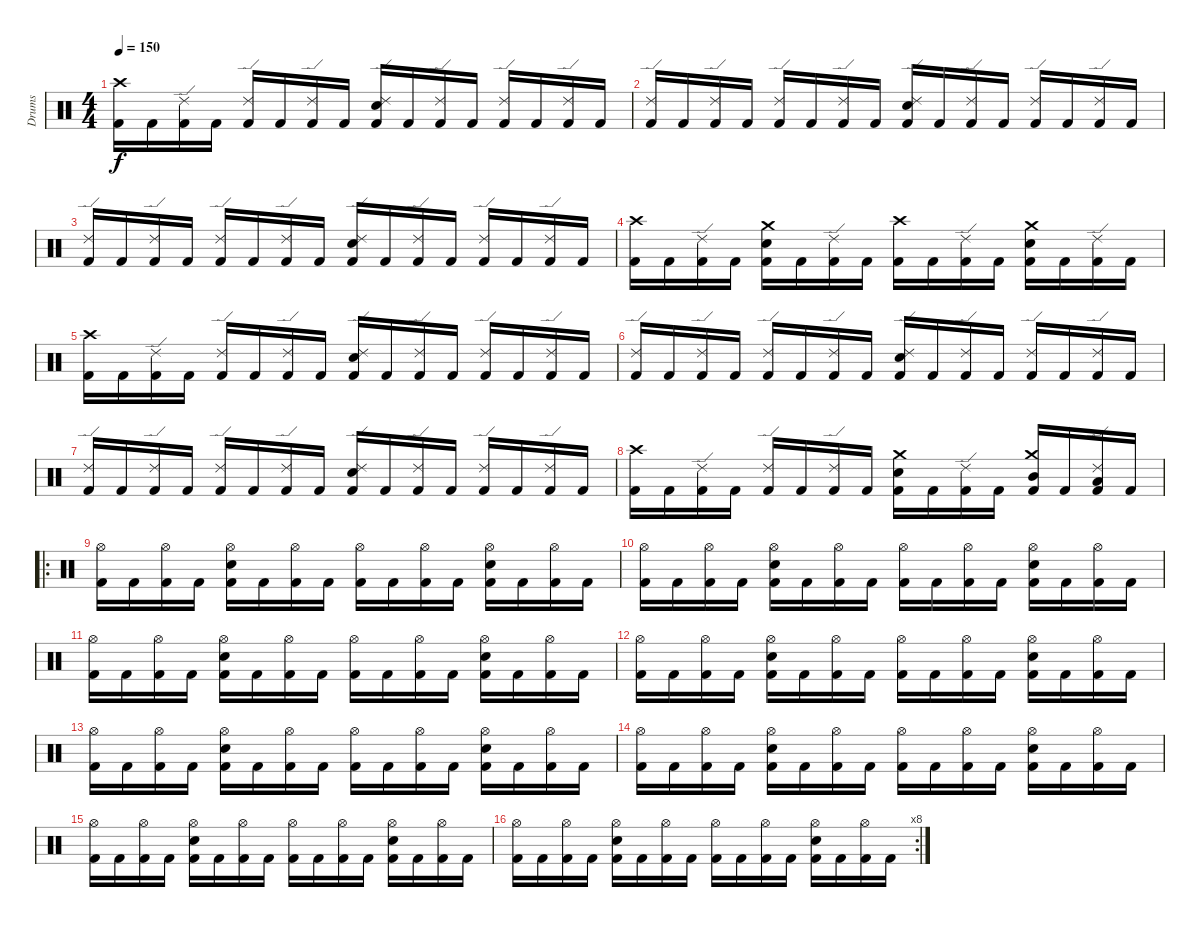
\track ("Drums" "Drums") {instrument percussion}
\staff {score}
\articulation defaults
\ts (4 4)
\tempo 150
\clef neutral
\ks c
("Crash high (hit)" "Kick (hit) 2").16{dy f} "Kick (hit) 2".16 ("Ride (edge) 2" "Kick (hit) 2").16 "Kick (hit) 2".16 ("Ride (edge) 2" "Kick (hit) 2").16 "Kick (hit) 2".16 ("Ride (edge) 2" "Kick (hit) 2").16 "Kick (hit) 2".16 ("Ride (edge) 2" "Electric Snare (hit)" "Kick (hit) 2").16 "Kick (hit) 2".16 ("Ride (edge) 2" "Kick (hit) 2").16 "Kick (hit) 2".16 ("Ride (edge) 2" "Kick (hit) 2").16 "Kick (hit) 2".16 ("Ride (edge) 2" "Kick (hit) 2").16 "Kick (hit) 2".16 |
("Ride (edge) 2" "Kick (hit) 2").16 "Kick (hit) 2".16 ("Ride (edge) 2" "Kick (hit) 2").16 "Kick (hit) 2".16 ("Ride (edge) 2" "Kick (hit) 2").16 "Kick (hit) 2".16 ("Ride (edge) 2" "Kick (hit) 2").16 "Kick (hit) 2".16 ("Ride (edge) 2" "Electric Snare (hit)" "Kick (hit) 2").16 "Kick (hit) 2".16 ("Ride (edge) 2" "Kick (hit) 2").16 "Kick (hit) 2".16 ("Ride (edge) 2" "Kick (hit) 2").16 "Kick (hit) 2".16 ("Ride (edge) 2" "Kick (hit) 2").16 "Kick (hit) 2".16 |
("Ride (edge) 2" "Kick (hit) 2").16 "Kick (hit) 2".16 ("Ride (edge) 2" "Kick (hit) 2").16 "Kick (hit) 2".16 ("Ride (edge) 2" "Kick (hit) 2").16 "Kick (hit) 2".16 ("Ride (edge) 2" "Kick (hit) 2").16 "Kick (hit) 2".16 ("Ride (edge) 2" "Electric Snare (hit)" "Kick (hit) 2").16 "Kick (hit) 2".16 ("Ride (edge) 2" "Kick (hit) 2").16 "Kick (hit) 2".16 ("Ride (edge) 2" "Kick (hit) 2").16 "Kick (hit) 2".16 ("Ride (edge) 2" "Kick (hit) 2").16 "Kick (hit) 2".16 |
("Crash high (hit)" "Kick (hit) 2").16 "Kick (hit) 2".16 ("Ride (edge) 2" "Kick (hit) 2").16 "Kick (hit) 2".16 ("Crash medium (hit)" "Electric Snare (hit)" "Kick (hit) 2").16 "Kick (hit) 2".16 ("Ride (edge) 2" "Kick (hit) 2").16 "Kick (hit) 2".16 ("Crash high (hit)" "Kick (hit) 2").16 "Kick (hit) 2".16 ("Ride (edge) 2" "Kick (hit) 2").16 "Kick (hit) 2".16 ("Crash medium (hit)" "Electric Snare (hit)" "Kick (hit) 2").16 "Kick (hit) 2".16 ("Ride (edge) 2" "Kick (hit) 2").16 "Kick (hit) 2".16 |
("Crash high (hit)" "Kick (hit) 2").16 "Kick (hit) 2".16 ("Ride (edge) 2" "Kick (hit) 2").16 "Kick (hit) 2".16 ("Ride (edge) 2" "Kick (hit) 2").16 "Kick (hit) 2".16 ("Ride (edge) 2" "Kick (hit) 2").16 "Kick (hit) 2".16 ("Ride (edge) 2" "Electric Snare (hit)" "Kick (hit) 2").16 "Kick (hit) 2".16 ("Ride (edge) 2" "Kick (hit) 2").16 "Kick (hit) 2".16 ("Ride (edge) 2" "Kick (hit) 2").16 "Kick (hit) 2".16 ("Ride (edge) 2" "Kick (hit) 2").16 "Kick (hit) 2".16 |
("Ride (edge) 2" "Kick (hit) 2").16 "Kick (hit) 2".16 ("Ride (edge) 2" "Kick (hit) 2").16 "Kick (hit) 2".16 ("Ride (edge) 2" "Kick (hit) 2").16 "Kick (hit) 2".16 ("Ride (edge) 2" "Kick (hit) 2").16 "Kick (hit) 2".16 ("Ride (edge) 2" "Electric Snare (hit)" "Kick (hit) 2").16 "Kick (hit) 2".16 ("Ride (edge) 2" "Kick (hit) 2").16 "Kick (hit) 2".16 ("Ride (edge) 2" "Kick (hit) 2").16 "Kick (hit) 2".16 ("Ride (edge) 2" "Kick (hit) 2").16 "Kick (hit) 2".16 |
("Ride (edge) 2" "Kick (hit) 2").16 "Kick (hit) 2".16 ("Ride (edge) 2" "Kick (hit) 2").16 "Kick (hit) 2".16 ("Ride (edge) 2" "Kick (hit) 2").16 "Kick (hit) 2".16 ("Ride (edge) 2" "Kick (hit) 2").16 "Kick (hit) 2".16 ("Ride (edge) 2" "Electric Snare (hit)" "Kick (hit) 2").16 "Kick (hit) 2".16 ("Ride (edge) 2" "Kick (hit) 2").16 "Kick (hit) 2".16 ("Ride (edge) 2" "Kick (hit) 2").16 "Kick (hit) 2".16 ("Ride (edge) 2" "Kick (hit) 2").16 "Kick (hit) 2".16 |
("Crash high (hit)" "Kick (hit) 2").16 "Kick (hit) 2".16 ("Ride (edge) 2" "Kick (hit) 2").16 "Kick (hit) 2".16 ("Ride (edge) 2" "Kick (hit) 2").16 "Kick (hit) 2".16 ("Ride (edge) 2" "Kick (hit) 2").16 "Kick (hit) 2".16 ("Crash medium (hit)" "Electric Snare (hit)" "Kick (hit) 2").16 "Kick (hit) 2".16 ("Ride (edge) 2" "Kick (hit) 2").16 "Kick (hit) 2".16 ("Crash medium (hit)" "Mid Tom (hit)" "Kick (hit) 2").16 "Kick (hit) 2".16 ("Ride (edge) 2" "Low Tom (hit)" "Kick (hit) 2").16 "Kick (hit) 2".16 |
\ro
("Hi-Hat (open)" "Kick (hit) 2").16 "Kick (hit) 2".16 ("Hi-Hat (open)" "Kick (hit) 2").16 "Kick (hit) 2".16 ("Hi-Hat (open)" "Electric Snare (hit)" "Kick (hit) 2").16 "Kick (hit) 2".16 ("Hi-Hat (open)" "Kick (hit) 2").16 "Kick (hit) 2".16 ("Hi-Hat (open)" "Kick (hit) 2").16 "Kick (hit) 2".16 ("Hi-Hat (open)" "Kick (hit) 2").16 "Kick (hit) 2".16 ("Hi-Hat (open)" "Electric Snare (hit)" "Kick (hit) 2").16 "Kick (hit) 2".16 ("Hi-Hat (open)" "Kick (hit) 2").16 "Kick (hit) 2".16 |
("Hi-Hat (open)" "Kick (hit) 2").16 "Kick (hit) 2".16 ("Hi-Hat (open)" "Kick (hit) 2").16 "Kick (hit) 2".16 ("Hi-Hat (open)" "Electric Snare (hit)" "Kick (hit) 2").16 "Kick (hit) 2".16 ("Hi-Hat (open)" "Kick (hit) 2").16 "Kick (hit) 2".16 ("Hi-Hat (open)" "Kick (hit) 2").16 "Kick (hit) 2".16 ("Hi-Hat (open)" "Kick (hit) 2").16 "Kick (hit) 2".16 ("Hi-Hat (open)" "Electric Snare (hit)" "Kick (hit) 2").16 "Kick (hit) 2".16 ("Hi-Hat (open)" "Kick (hit) 2").16 "Kick (hit) 2".16 |
("Hi-Hat (open)" "Kick (hit) 2").16 "Kick (hit) 2".16 ("Hi-Hat (open)" "Kick (hit) 2").16 "Kick (hit) 2".16 ("Hi-Hat (open)" "Electric Snare (hit)" "Kick (hit) 2").16 "Kick (hit) 2".16 ("Hi-Hat (open)" "Kick (hit) 2").16 "Kick (hit) 2".16 ("Hi-Hat (open)" "Kick (hit) 2").16 "Kick (hit) 2".16 ("Hi-Hat (open)" "Kick (hit) 2").16 "Kick (hit) 2".16 ("Hi-Hat (open)" "Electric Snare (hit)" "Kick (hit) 2").16 "Kick (hit) 2".16 ("Hi-Hat (open)" "Kick (hit) 2").16 "Kick (hit) 2".16 |
("Hi-Hat (open)" "Kick (hit) 2").16 "Kick (hit) 2".16 ("Hi-Hat (open)" "Kick (hit) 2").16 "Kick (hit) 2".16 ("Hi-Hat (open)" "Electric Snare (hit)" "Kick (hit) 2").16 "Kick (hit) 2".16 ("Hi-Hat (open)" "Kick (hit) 2").16 "Kick (hit) 2".16 ("Hi-Hat (open)" "Kick (hit) 2").16 "Kick (hit) 2".16 ("Hi-Hat (open)" "Kick (hit) 2").16 "Kick (hit) 2".16 ("Hi-Hat (open)" "Electric Snare (hit)" "Kick (hit) 2").16 "Kick (hit) 2".16 ("Hi-Hat (open)" "Kick (hit) 2").16 "Kick (hit) 2".16 |
("Hi-Hat (open)" "Kick (hit) 2").16 "Kick (hit) 2".16 ("Hi-Hat (open)" "Kick (hit) 2").16 "Kick (hit) 2".16 ("Hi-Hat (open)" "Electric Snare (hit)" "Kick (hit) 2").16 "Kick (hit) 2".16 ("Hi-Hat (open)" "Kick (hit) 2").16 "Kick (hit) 2".16 ("Hi-Hat (open)" "Kick (hit) 2").16 "Kick (hit) 2".16 ("Hi-Hat (open)" "Kick (hit) 2").16 "Kick (hit) 2".16 ("Hi-Hat (open)" "Electric Snare (hit)" "Kick (hit) 2").16 "Kick (hit) 2".16 ("Hi-Hat (open)" "Kick (hit) 2").16 "Kick (hit) 2".16 |
("Hi-Hat (open)" "Kick (hit) 2").16 "Kick (hit) 2".16 ("Hi-Hat (open)" "Kick (hit) 2").16 "Kick (hit) 2".16 ("Hi-Hat (open)" "Electric Snare (hit)" "Kick (hit) 2").16 "Kick (hit) 2".16 ("Hi-Hat (open)" "Kick (hit) 2").16 "Kick (hit) 2".16 ("Hi-Hat (open)" "Kick (hit) 2").16 "Kick (hit) 2".16 ("Hi-Hat (open)" "Kick (hit) 2").16 "Kick (hit) 2".16 ("Hi-Hat (open)" "Electric Snare (hit)" "Kick (hit) 2").16 "Kick (hit) 2".16 ("Hi-Hat (open)" "Kick (hit) 2").16 "Kick (hit) 2".16 |
("Hi-Hat (open)" "Kick (hit) 2").16 "Kick (hit) 2".16 ("Hi-Hat (open)" "Kick (hit) 2").16 "Kick (hit) 2".16 ("Hi-Hat (open)" "Electric Snare (hit)" "Kick (hit) 2").16 "Kick (hit) 2".16 ("Hi-Hat (open)" "Kick (hit) 2").16 "Kick (hit) 2".16 ("Hi-Hat (open)" "Kick (hit) 2").16 "Kick (hit) 2".16 ("Hi-Hat (open)" "Kick (hit) 2").16 "Kick (hit) 2".16 ("Hi-Hat (open)" "Electric Snare (hit)" "Kick (hit) 2").16 "Kick (hit) 2".16 ("Hi-Hat (open)" "Kick (hit) 2").16 "Kick (hit) 2".16 |
\rc 8
("Hi-Hat (open)" "Kick (hit) 2").16 "Kick (hit) 2".16 ("Hi-Hat (open)" "Kick (hit) 2").16 "Kick (hit) 2".16 ("Hi-Hat (open)" "Electric Snare (hit)" "Kick (hit) 2").16 "Kick (hit) 2".16 ("Hi-Hat (open)" "Kick (hit) 2").16 "Kick (hit) 2".16 ("Hi-Hat (open)" "Kick (hit) 2").16 "Kick (hit) 2".16 ("Hi-Hat (open)" "Kick (hit) 2").16 "Kick (hit) 2".16 ("Hi-Hat (open)" "Electric Snare (hit)" "Kick (hit) 2").16 "Kick (hit) 2".16 ("Hi-Hat (open)" "Kick (hit) 2").16 "Kick (hit) 2".16
